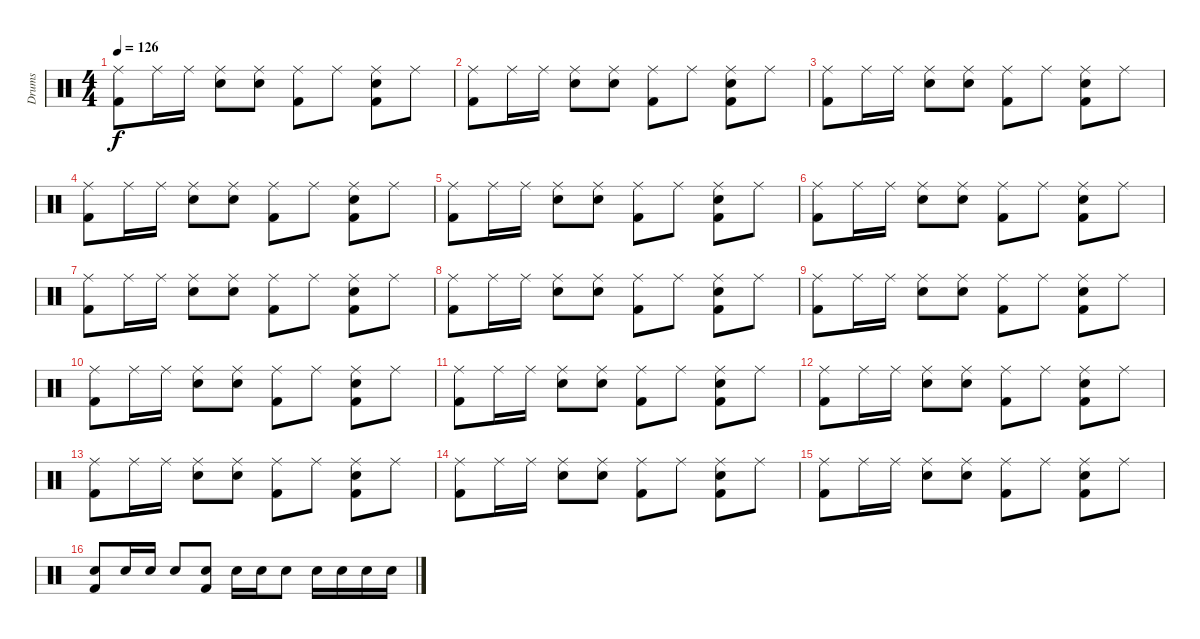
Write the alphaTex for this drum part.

\track ("Drums" "Drums") {instrument percussion}
\staff {score}
\articulation defaults
\ts (4 4)
\tempo 126
\clef neutral
\ks c
("Ride (middle)" "Kick (hit) 2").8{dy f} "Ride (middle)".16 "Ride (middle)".16 ("Ride (middle)" "Snare (hit) 2").8 ("Ride (middle)" "Snare (hit) 2").8 ("Ride (middle)" "Kick (hit) 2").8 "Ride (middle)".8 ("Ride (middle)" "Snare (hit) 2" "Kick (hit) 2").8 "Ride (middle)".8 |
("Ride (middle)" "Kick (hit) 2").8 "Ride (middle)".16 "Ride (middle)".16 ("Ride (middle)" "Snare (hit) 2").8 ("Ride (middle)" "Snare (hit) 2").8 ("Ride (middle)" "Kick (hit) 2").8 "Ride (middle)".8 ("Ride (middle)" "Snare (hit) 2" "Kick (hit) 2").8 "Ride (middle)".8 |
("Ride (middle)" "Kick (hit) 2").8 "Ride (middle)".16 "Ride (middle)".16 ("Ride (middle)" "Snare (hit) 2").8 ("Ride (middle)" "Snare (hit) 2").8 ("Ride (middle)" "Kick (hit) 2").8 "Ride (middle)".8 ("Ride (middle)" "Snare (hit) 2" "Kick (hit) 2").8 "Ride (middle)".8 |
("Ride (middle)" "Kick (hit) 2").8 "Ride (middle)".16 "Ride (middle)".16 ("Ride (middle)" "Snare (hit) 2").8 ("Ride (middle)" "Snare (hit) 2").8 ("Ride (middle)" "Kick (hit) 2").8 "Ride (middle)".8 ("Ride (middle)" "Snare (hit) 2" "Kick (hit) 2").8 "Ride (middle)".8 |
("Ride (middle)" "Kick (hit) 2").8 "Ride (middle)".16 "Ride (middle)".16 ("Ride (middle)" "Snare (hit) 2").8 ("Ride (middle)" "Snare (hit) 2").8 ("Ride (middle)" "Kick (hit) 2").8 "Ride (middle)".8 ("Ride (middle)" "Snare (hit) 2" "Kick (hit) 2").8 "Ride (middle)".8 |
("Ride (middle)" "Kick (hit) 2").8 "Ride (middle)".16 "Ride (middle)".16 ("Ride (middle)" "Snare (hit) 2").8 ("Ride (middle)" "Snare (hit) 2").8 ("Ride (middle)" "Kick (hit) 2").8 "Ride (middle)".8 ("Ride (middle)" "Snare (hit) 2" "Kick (hit) 2").8 "Ride (middle)".8 |
("Ride (middle)" "Kick (hit) 2").8 "Ride (middle)".16 "Ride (middle)".16 ("Ride (middle)" "Snare (hit) 2").8 ("Ride (middle)" "Snare (hit) 2").8 ("Ride (middle)" "Kick (hit) 2").8 "Ride (middle)".8 ("Ride (middle)" "Snare (hit) 2" "Kick (hit) 2").8 "Ride (middle)".8 |
("Ride (middle)" "Kick (hit) 2").8 "Ride (middle)".16 "Ride (middle)".16 ("Ride (middle)" "Snare (hit) 2").8 ("Ride (middle)" "Snare (hit) 2").8 ("Ride (middle)" "Kick (hit) 2").8 "Ride (middle)".8 ("Ride (middle)" "Snare (hit) 2" "Kick (hit) 2").8 "Ride (middle)".8 |
("Ride (middle)" "Kick (hit) 2").8 "Ride (middle)".16 "Ride (middle)".16 ("Ride (middle)" "Snare (hit) 2").8 ("Ride (middle)" "Snare (hit) 2").8 ("Ride (middle)" "Kick (hit) 2").8 "Ride (middle)".8 ("Ride (middle)" "Snare (hit) 2" "Kick (hit) 2").8 "Ride (middle)".8 |
("Ride (middle)" "Kick (hit) 2").8 "Ride (middle)".16 "Ride (middle)".16 ("Ride (middle)" "Snare (hit) 2").8 ("Ride (middle)" "Snare (hit) 2").8 ("Ride (middle)" "Kick (hit) 2").8 "Ride (middle)".8 ("Ride (middle)" "Snare (hit) 2" "Kick (hit) 2").8 "Ride (middle)".8 |
("Ride (middle)" "Kick (hit) 2").8 "Ride (middle)".16 "Ride (middle)".16 ("Ride (middle)" "Snare (hit) 2").8 ("Ride (middle)" "Snare (hit) 2").8 ("Ride (middle)" "Kick (hit) 2").8 "Ride (middle)".8 ("Ride (middle)" "Snare (hit) 2" "Kick (hit) 2").8 "Ride (middle)".8 |
("Ride (middle)" "Kick (hit) 2").8 "Ride (middle)".16 "Ride (middle)".16 ("Ride (middle)" "Snare (hit) 2").8 ("Ride (middle)" "Snare (hit) 2").8 ("Ride (middle)" "Kick (hit) 2").8 "Ride (middle)".8 ("Ride (middle)" "Snare (hit) 2" "Kick (hit) 2").8 "Ride (middle)".8 |
("Ride (middle)" "Kick (hit) 2").8 "Ride (middle)".16 "Ride (middle)".16 ("Ride (middle)" "Snare (hit) 2").8 ("Ride (middle)" "Snare (hit) 2").8 ("Ride (middle)" "Kick (hit) 2").8 "Ride (middle)".8 ("Ride (middle)" "Snare (hit) 2" "Kick (hit) 2").8 "Ride (middle)".8 |
("Ride (middle)" "Kick (hit) 2").8 "Ride (middle)".16 "Ride (middle)".16 ("Ride (middle)" "Snare (hit) 2").8 ("Ride (middle)" "Snare (hit) 2").8 ("Ride (middle)" "Kick (hit) 2").8 "Ride (middle)".8 ("Ride (middle)" "Snare (hit) 2" "Kick (hit) 2").8 "Ride (middle)".8 |
("Ride (middle)" "Kick (hit) 2").8 "Ride (middle)".16 "Ride (middle)".16 ("Ride (middle)" "Snare (hit) 2").8 ("Ride (middle)" "Snare (hit) 2").8 ("Ride (middle)" "Kick (hit) 2").8 "Ride (middle)".8 ("Ride (middle)" "Snare (hit) 2" "Kick (hit) 2").8 "Ride (middle)".8 |
("Snare (hit) 2" "Kick (hit) 2").8 "Snare (hit) 2".16 "Snare (hit) 2".16 "Snare (hit) 2".8 ("Snare (hit) 2" "Kick (hit) 2").8 "Snare (hit) 2".16 "Snare (hit) 2".16 "Snare (hit) 2".8 "Snare (hit) 2".16 "Snare (hit) 2".16 "Snare (hit) 2".16 "Snare (hit) 2".16
